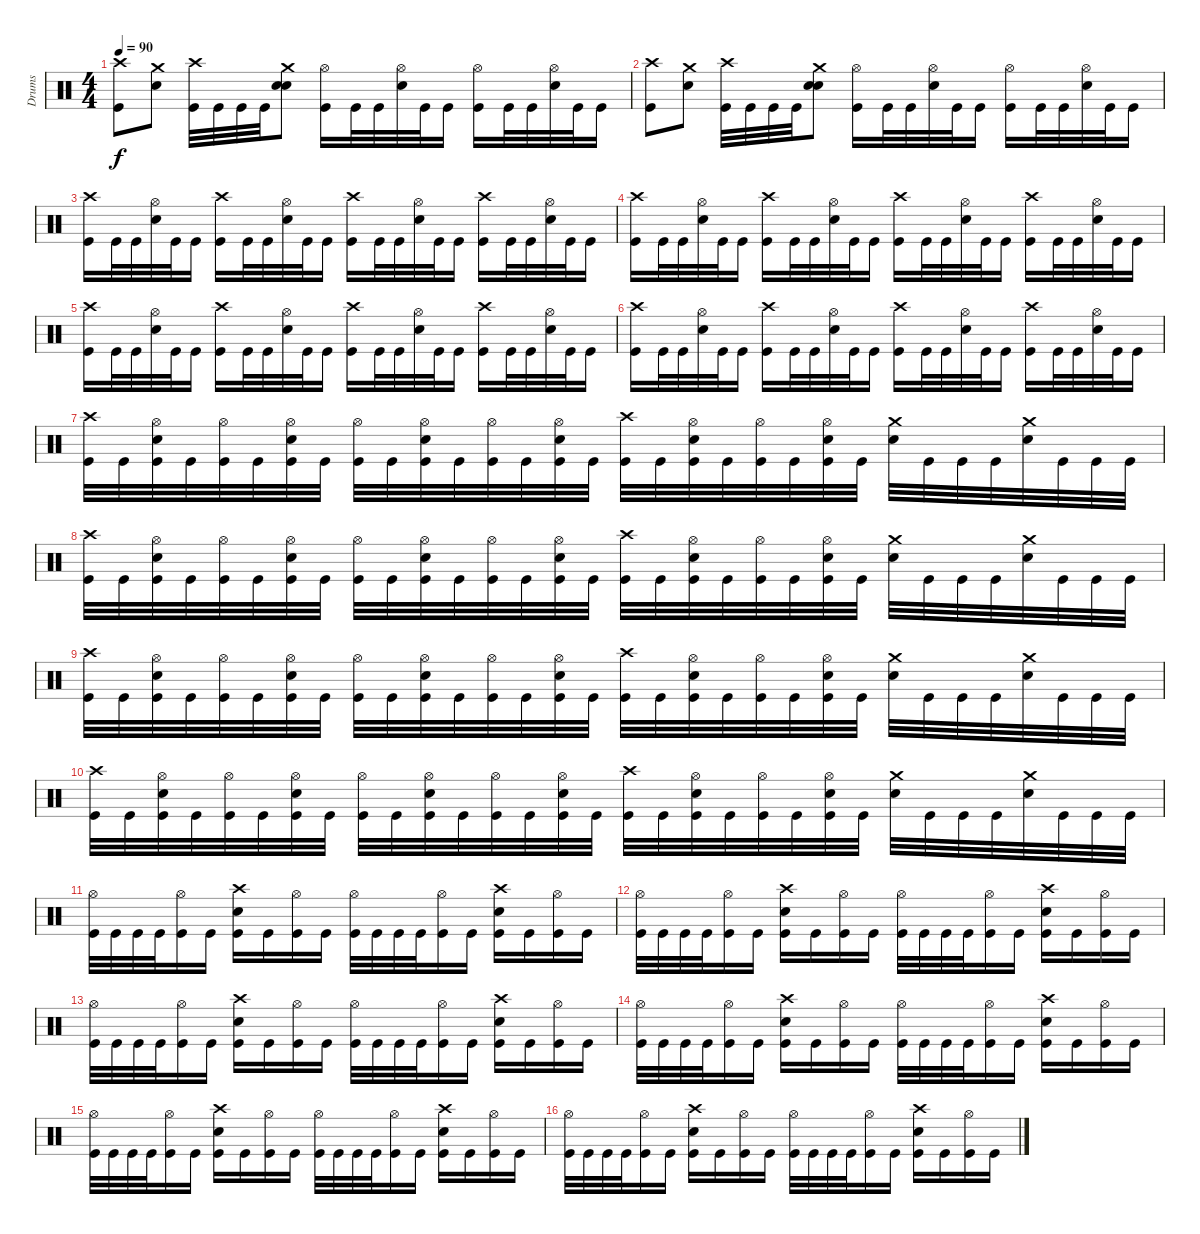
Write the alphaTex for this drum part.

\track ("Drums" "Drums") {instrument percussion}
\staff {score}
\articulation defaults
\ts (4 4)
\tempo 90
\clef neutral
\ks c
("Crash high (hit)" "Kick (hit)").8{dy f} ("Crash medium (hit)" "Snare (hit) 2").8 ("Crash high (hit)" "Kick (hit)").32 "Kick (hit)".32 "Kick (hit)".32 "Kick (hit)".32 ("Crash medium (hit)" "Snare (hit) 2" "Snare (hit) 2").8 ("Hi-Hat (open)" "Kick (hit)").16 "Kick (hit)".32 "Kick (hit)".32 ("Hi-Hat (open)" "Snare (hit) 2").32 "Kick (hit)".32 "Kick (hit)".16 ("Hi-Hat (open)" "Kick (hit)").16 "Kick (hit)".32 "Kick (hit)".32 ("Hi-Hat (open)" "Snare (hit) 2").32 "Kick (hit)".32 "Kick (hit)".16 |
("Crash high (hit)" "Kick (hit)").8 ("Crash medium (hit)" "Snare (hit) 2").8 ("Crash high (hit)" "Kick (hit)").32 "Kick (hit)".32 "Kick (hit)".32 "Kick (hit)".32 ("Crash medium (hit)" "Snare (hit) 2" "Snare (hit) 2").8 ("Hi-Hat (open)" "Kick (hit)").16 "Kick (hit)".32 "Kick (hit)".32 ("Hi-Hat (open)" "Snare (hit) 2").32 "Kick (hit)".32 "Kick (hit)".16 ("Hi-Hat (open)" "Kick (hit)").16 "Kick (hit)".32 "Kick (hit)".32 ("Hi-Hat (open)" "Snare (hit) 2").32 "Kick (hit)".32 "Kick (hit)".16 |
("Crash high (hit)" "Kick (hit)").16 "Kick (hit)".32 "Kick (hit)".32 ("Hi-Hat (open)" "Snare (hit) 2").32 "Kick (hit)".32 "Kick (hit)".16 ("Crash high (hit)" "Kick (hit)").16 "Kick (hit)".32 "Kick (hit)".32 ("Hi-Hat (open)" "Snare (hit) 2").32 "Kick (hit)".32 "Kick (hit)".16 ("Crash high (hit)" "Kick (hit)").16 "Kick (hit)".32 "Kick (hit)".32 ("Hi-Hat (open)" "Snare (hit) 2").32 "Kick (hit)".32 "Kick (hit)".16 ("Crash high (hit)" "Kick (hit)").16 "Kick (hit)".32 "Kick (hit)".32 ("Hi-Hat (open)" "Snare (hit) 2").32 "Kick (hit)".32 "Kick (hit)".16 |
("Crash high (hit)" "Kick (hit)").16 "Kick (hit)".32 "Kick (hit)".32 ("Hi-Hat (open)" "Snare (hit) 2").32 "Kick (hit)".32 "Kick (hit)".16 ("Crash high (hit)" "Kick (hit)").16 "Kick (hit)".32 "Kick (hit)".32 ("Hi-Hat (open)" "Snare (hit) 2").32 "Kick (hit)".32 "Kick (hit)".16 ("Crash high (hit)" "Kick (hit)").16 "Kick (hit)".32 "Kick (hit)".32 ("Hi-Hat (open)" "Snare (hit) 2").32 "Kick (hit)".32 "Kick (hit)".16 ("Crash high (hit)" "Kick (hit)").16 "Kick (hit)".32 "Kick (hit)".32 ("Hi-Hat (open)" "Snare (hit) 2").32 "Kick (hit)".32 "Kick (hit)".16 |
("Crash high (hit)" "Kick (hit)").16 "Kick (hit)".32 "Kick (hit)".32 ("Hi-Hat (open)" "Snare (hit) 2").32 "Kick (hit)".32 "Kick (hit)".16 ("Crash high (hit)" "Kick (hit)").16 "Kick (hit)".32 "Kick (hit)".32 ("Hi-Hat (open)" "Snare (hit) 2").32 "Kick (hit)".32 "Kick (hit)".16 ("Crash high (hit)" "Kick (hit)").16 "Kick (hit)".32 "Kick (hit)".32 ("Hi-Hat (open)" "Snare (hit) 2").32 "Kick (hit)".32 "Kick (hit)".16 ("Crash high (hit)" "Kick (hit)").16 "Kick (hit)".32 "Kick (hit)".32 ("Hi-Hat (open)" "Snare (hit) 2").32 "Kick (hit)".32 "Kick (hit)".16 |
("Crash high (hit)" "Kick (hit)").16 "Kick (hit)".32 "Kick (hit)".32 ("Hi-Hat (open)" "Snare (hit) 2").32 "Kick (hit)".32 "Kick (hit)".16 ("Crash high (hit)" "Kick (hit)").16 "Kick (hit)".32 "Kick (hit)".32 ("Hi-Hat (open)" "Snare (hit) 2").32 "Kick (hit)".32 "Kick (hit)".16 ("Crash high (hit)" "Kick (hit)").16 "Kick (hit)".32 "Kick (hit)".32 ("Hi-Hat (open)" "Snare (hit) 2").32 "Kick (hit)".32 "Kick (hit)".16 ("Crash high (hit)" "Kick (hit)").16 "Kick (hit)".32 "Kick (hit)".32 ("Hi-Hat (open)" "Snare (hit) 2").32 "Kick (hit)".32 "Kick (hit)".16 |
("Crash high (hit)" "Kick (hit)").32 "Kick (hit)".32 ("Hi-Hat (open)" "Snare (hit) 2" "Kick (hit)").32 "Kick (hit)".32 ("Hi-Hat (open)" "Kick (hit)").32 "Kick (hit)".32 ("Hi-Hat (open)" "Snare (hit) 2" "Kick (hit)").32 "Kick (hit)".32 ("Hi-Hat (open)" "Kick (hit)").32 "Kick (hit)".32 ("Hi-Hat (open)" "Snare (hit) 2" "Kick (hit)").32 "Kick (hit)".32 ("Hi-Hat (open)" "Kick (hit)").32 "Kick (hit)".32 ("Hi-Hat (open)" "Snare (hit) 2" "Kick (hit)").32 "Kick (hit)".32 ("Crash high (hit)" "Kick (hit)").32 "Kick (hit)".32 ("Hi-Hat (open)" "Snare (hit) 2" "Kick (hit)").32 "Kick (hit)".32 ("Hi-Hat (open)" "Kick (hit)").32 "Kick (hit)".32 ("Hi-Hat (open)" "Snare (hit) 2" "Kick (hit)").32 "Kick (hit)".32 ("Crash medium (hit)" "Snare (hit) 2").32 "Kick (hit)".32 "Kick (hit)".32 "Kick (hit)".32 ("Crash medium (hit)" "Snare (hit) 2").32 "Kick (hit)".32 "Kick (hit)".32 "Kick (hit)".32 |
("Crash high (hit)" "Kick (hit)").32 "Kick (hit)".32 ("Hi-Hat (open)" "Snare (hit) 2" "Kick (hit)").32 "Kick (hit)".32 ("Hi-Hat (open)" "Kick (hit)").32 "Kick (hit)".32 ("Hi-Hat (open)" "Snare (hit) 2" "Kick (hit)").32 "Kick (hit)".32 ("Hi-Hat (open)" "Kick (hit)").32 "Kick (hit)".32 ("Hi-Hat (open)" "Snare (hit) 2" "Kick (hit)").32 "Kick (hit)".32 ("Hi-Hat (open)" "Kick (hit)").32 "Kick (hit)".32 ("Hi-Hat (open)" "Snare (hit) 2" "Kick (hit)").32 "Kick (hit)".32 ("Crash high (hit)" "Kick (hit)").32 "Kick (hit)".32 ("Hi-Hat (open)" "Snare (hit) 2" "Kick (hit)").32 "Kick (hit)".32 ("Hi-Hat (open)" "Kick (hit)").32 "Kick (hit)".32 ("Hi-Hat (open)" "Snare (hit) 2" "Kick (hit)").32 "Kick (hit)".32 ("Crash medium (hit)" "Snare (hit) 2").32 "Kick (hit)".32 "Kick (hit)".32 "Kick (hit)".32 ("Crash medium (hit)" "Snare (hit) 2").32 "Kick (hit)".32 "Kick (hit)".32 "Kick (hit)".32 |
("Crash high (hit)" "Kick (hit)").32 "Kick (hit)".32 ("Hi-Hat (open)" "Snare (hit) 2" "Kick (hit)").32 "Kick (hit)".32 ("Hi-Hat (open)" "Kick (hit)").32 "Kick (hit)".32 ("Hi-Hat (open)" "Snare (hit) 2" "Kick (hit)").32 "Kick (hit)".32 ("Hi-Hat (open)" "Kick (hit)").32 "Kick (hit)".32 ("Hi-Hat (open)" "Snare (hit) 2" "Kick (hit)").32 "Kick (hit)".32 ("Hi-Hat (open)" "Kick (hit)").32 "Kick (hit)".32 ("Hi-Hat (open)" "Snare (hit) 2" "Kick (hit)").32 "Kick (hit)".32 ("Crash high (hit)" "Kick (hit)").32 "Kick (hit)".32 ("Hi-Hat (open)" "Snare (hit) 2" "Kick (hit)").32 "Kick (hit)".32 ("Hi-Hat (open)" "Kick (hit)").32 "Kick (hit)".32 ("Hi-Hat (open)" "Snare (hit) 2" "Kick (hit)").32 "Kick (hit)".32 ("Crash medium (hit)" "Snare (hit) 2").32 "Kick (hit)".32 "Kick (hit)".32 "Kick (hit)".32 ("Crash medium (hit)" "Snare (hit) 2").32 "Kick (hit)".32 "Kick (hit)".32 "Kick (hit)".32 |
("Crash high (hit)" "Kick (hit)").32 "Kick (hit)".32 ("Hi-Hat (open)" "Snare (hit) 2" "Kick (hit)").32 "Kick (hit)".32 ("Hi-Hat (open)" "Kick (hit)").32 "Kick (hit)".32 ("Hi-Hat (open)" "Snare (hit) 2" "Kick (hit)").32 "Kick (hit)".32 ("Hi-Hat (open)" "Kick (hit)").32 "Kick (hit)".32 ("Hi-Hat (open)" "Snare (hit) 2" "Kick (hit)").32 "Kick (hit)".32 ("Hi-Hat (open)" "Kick (hit)").32 "Kick (hit)".32 ("Hi-Hat (open)" "Snare (hit) 2" "Kick (hit)").32 "Kick (hit)".32 ("Crash high (hit)" "Kick (hit)").32 "Kick (hit)".32 ("Hi-Hat (open)" "Snare (hit) 2" "Kick (hit)").32 "Kick (hit)".32 ("Hi-Hat (open)" "Kick (hit)").32 "Kick (hit)".32 ("Hi-Hat (open)" "Snare (hit) 2" "Kick (hit)").32 "Kick (hit)".32 ("Crash medium (hit)" "Snare (hit) 2").32 "Kick (hit)".32 "Kick (hit)".32 "Kick (hit)".32 ("Crash medium (hit)" "Snare (hit) 2").32 "Kick (hit)".32 "Kick (hit)".32 "Kick (hit)".32 |
("Hi-Hat (open)" "Kick (hit)").32 "Kick (hit)".32 "Kick (hit)".32 "Kick (hit)".32 ("Hi-Hat (open)" "Kick (hit)").16 "Kick (hit)".16 ("Crash high (hit)" "Snare (hit) 2" "Kick (hit)").16 "Kick (hit)".16 ("Hi-Hat (open)" "Kick (hit)").16 "Kick (hit)".16 ("Hi-Hat (open)" "Kick (hit)").32 "Kick (hit)".32 "Kick (hit)".32 "Kick (hit)".32 ("Hi-Hat (open)" "Kick (hit)").16 "Kick (hit)".16 ("Crash high (hit)" "Snare (hit) 2" "Kick (hit)").16 "Kick (hit)".16 ("Hi-Hat (open)" "Kick (hit)").16 "Kick (hit)".16 |
("Hi-Hat (open)" "Kick (hit)").32 "Kick (hit)".32 "Kick (hit)".32 "Kick (hit)".32 ("Hi-Hat (open)" "Kick (hit)").16 "Kick (hit)".16 ("Crash high (hit)" "Snare (hit) 2" "Kick (hit)").16 "Kick (hit)".16 ("Hi-Hat (open)" "Kick (hit)").16 "Kick (hit)".16 ("Hi-Hat (open)" "Kick (hit)").32 "Kick (hit)".32 "Kick (hit)".32 "Kick (hit)".32 ("Hi-Hat (open)" "Kick (hit)").16 "Kick (hit)".16 ("Crash high (hit)" "Snare (hit) 2" "Kick (hit)").16 "Kick (hit)".16 ("Hi-Hat (open)" "Kick (hit)").16 "Kick (hit)".16 |
("Hi-Hat (open)" "Kick (hit)").32 "Kick (hit)".32 "Kick (hit)".32 "Kick (hit)".32 ("Hi-Hat (open)" "Kick (hit)").16 "Kick (hit)".16 ("Crash high (hit)" "Snare (hit) 2" "Kick (hit)").16 "Kick (hit)".16 ("Hi-Hat (open)" "Kick (hit)").16 "Kick (hit)".16 ("Hi-Hat (open)" "Kick (hit)").32 "Kick (hit)".32 "Kick (hit)".32 "Kick (hit)".32 ("Hi-Hat (open)" "Kick (hit)").16 "Kick (hit)".16 ("Crash high (hit)" "Snare (hit) 2" "Kick (hit)").16 "Kick (hit)".16 ("Hi-Hat (open)" "Kick (hit)").16 "Kick (hit)".16 |
("Hi-Hat (open)" "Kick (hit)").32 "Kick (hit)".32 "Kick (hit)".32 "Kick (hit)".32 ("Hi-Hat (open)" "Kick (hit)").16 "Kick (hit)".16 ("Crash high (hit)" "Snare (hit) 2" "Kick (hit)").16 "Kick (hit)".16 ("Hi-Hat (open)" "Kick (hit)").16 "Kick (hit)".16 ("Hi-Hat (open)" "Kick (hit)").32 "Kick (hit)".32 "Kick (hit)".32 "Kick (hit)".32 ("Hi-Hat (open)" "Kick (hit)").16 "Kick (hit)".16 ("Crash high (hit)" "Snare (hit) 2" "Kick (hit)").16 "Kick (hit)".16 ("Hi-Hat (open)" "Kick (hit)").16 "Kick (hit)".16 |
("Hi-Hat (open)" "Kick (hit)").32 "Kick (hit)".32 "Kick (hit)".32 "Kick (hit)".32 ("Hi-Hat (open)" "Kick (hit)").16 "Kick (hit)".16 ("Crash high (hit)" "Snare (hit) 2" "Kick (hit)").16 "Kick (hit)".16 ("Hi-Hat (open)" "Kick (hit)").16 "Kick (hit)".16 ("Hi-Hat (open)" "Kick (hit)").32 "Kick (hit)".32 "Kick (hit)".32 "Kick (hit)".32 ("Hi-Hat (open)" "Kick (hit)").16 "Kick (hit)".16 ("Crash high (hit)" "Snare (hit) 2" "Kick (hit)").16 "Kick (hit)".16 ("Hi-Hat (open)" "Kick (hit)").16 "Kick (hit)".16 |
("Hi-Hat (open)" "Kick (hit)").32 "Kick (hit)".32 "Kick (hit)".32 "Kick (hit)".32 ("Hi-Hat (open)" "Kick (hit)").16 "Kick (hit)".16 ("Crash high (hit)" "Snare (hit) 2" "Kick (hit)").16 "Kick (hit)".16 ("Hi-Hat (open)" "Kick (hit)").16 "Kick (hit)".16 ("Hi-Hat (open)" "Kick (hit)").32 "Kick (hit)".32 "Kick (hit)".32 "Kick (hit)".32 ("Hi-Hat (open)" "Kick (hit)").16 "Kick (hit)".16 ("Crash high (hit)" "Snare (hit) 2" "Kick (hit)").16 "Kick (hit)".16 ("Hi-Hat (open)" "Kick (hit)").16 "Kick (hit)".16
